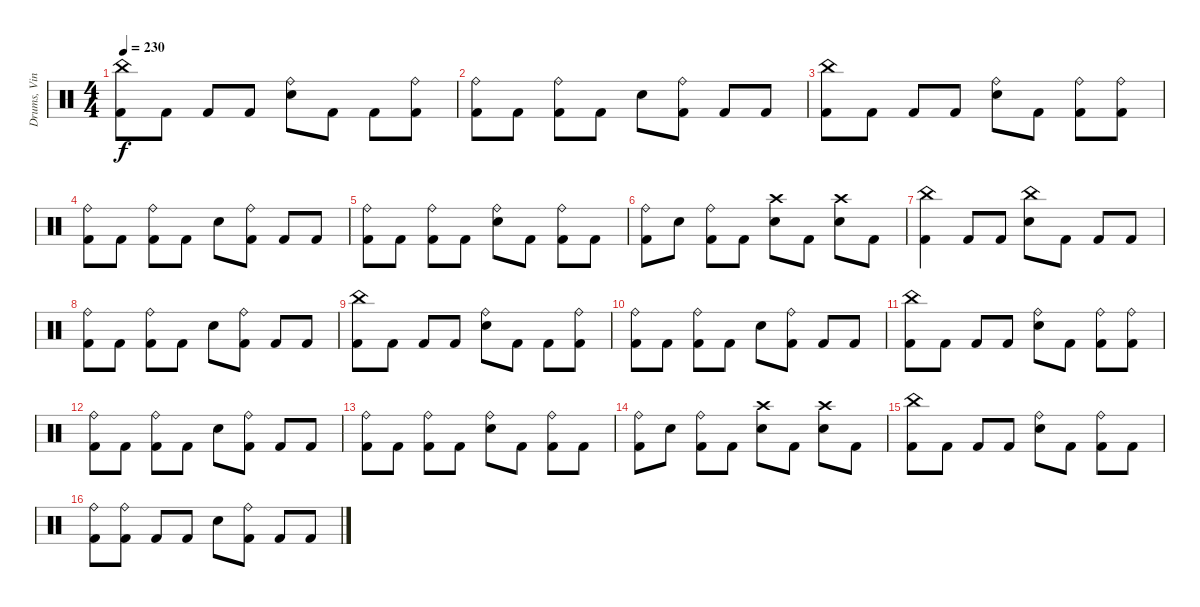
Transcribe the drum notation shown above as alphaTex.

\track ("Drums, Vinnie" "Drums, Vin") {instrument percussion}
\staff {score}
\articulation defaults
\ts (4 4)
\tempo 230
\clef neutral
\ks c
("China (hit)" "Kick (hit) 2").8{dy f} "Kick (hit) 2".8 "Kick (hit) 2".8 "Kick (hit) 2".8 ("Ride (bell)" "Electric Snare (hit)").8 "Kick (hit) 2".8 "Kick (hit) 2".8 ("Ride (bell)" "Kick (hit) 2").8 |
("Ride (bell)" "Kick (hit) 2").8 "Kick (hit) 2".8 ("Ride (bell)" "Kick (hit) 2").8 "Kick (hit) 2".8 "Electric Snare (hit)".8 ("Ride (bell)" "Kick (hit) 2").8 "Kick (hit) 2".8 "Kick (hit) 2".8 |
("China (hit)" "Kick (hit) 2").8 "Kick (hit) 2".8 "Kick (hit) 2".8 "Kick (hit) 2".8 ("Ride (bell)" "Electric Snare (hit)").8 "Kick (hit) 2".8 ("Ride (bell)" "Kick (hit) 2").8 ("Ride (bell)" "Kick (hit) 2").8 |
("Ride (bell)" "Kick (hit) 2").8 "Kick (hit) 2".8 ("Ride (bell)" "Kick (hit) 2").8 "Kick (hit) 2".8 "Electric Snare (hit)".8 ("Ride (bell)" "Kick (hit) 2").8 "Kick (hit) 2".8 "Kick (hit) 2".8 |
("Ride (bell)" "Kick (hit) 2").8 "Kick (hit) 2".8 ("Ride (bell)" "Kick (hit) 2").8 "Kick (hit) 2".8 ("Ride (bell)" "Electric Snare (hit)").8 "Kick (hit) 2".8 ("Ride (bell)" "Kick (hit) 2").8 "Kick (hit) 2".8 |
("Ride (bell)" "Kick (hit) 2").8 "Electric Snare (hit)".8 ("Ride (bell)" "Kick (hit) 2").8 "Kick (hit) 2".8 ("Crash high (hit)" "Electric Snare (hit)").8 "Kick (hit) 2".8 ("Crash high (hit)" "Electric Snare (hit)").8 "Kick (hit) 2".8 |
("China (hit)" "Kick (hit) 2").4 "Kick (hit) 2".8 "Kick (hit) 2".8 ("China (hit)" "Electric Snare (hit)").8 "Kick (hit) 2".8 "Kick (hit) 2".8 "Kick (hit) 2".8 |
("Ride (bell)" "Kick (hit) 2").8 "Kick (hit) 2".8 ("Ride (bell)" "Kick (hit) 2").8 "Kick (hit) 2".8 "Electric Snare (hit)".8 ("Ride (bell)" "Kick (hit) 2").8 "Kick (hit) 2".8 "Kick (hit) 2".8 |
("China (hit)" "Kick (hit) 2").8 "Kick (hit) 2".8 "Kick (hit) 2".8 "Kick (hit) 2".8 ("Ride (bell)" "Electric Snare (hit)").8 "Kick (hit) 2".8 "Kick (hit) 2".8 ("Ride (bell)" "Kick (hit) 2").8 |
("Ride (bell)" "Kick (hit) 2").8 "Kick (hit) 2".8 ("Ride (bell)" "Kick (hit) 2").8 "Kick (hit) 2".8 "Electric Snare (hit)".8 ("Ride (bell)" "Kick (hit) 2").8 "Kick (hit) 2".8 "Kick (hit) 2".8 |
("China (hit)" "Kick (hit) 2").8 "Kick (hit) 2".8 "Kick (hit) 2".8 "Kick (hit) 2".8 ("Ride (bell)" "Electric Snare (hit)").8 "Kick (hit) 2".8 ("Ride (bell)" "Kick (hit) 2").8 ("Ride (bell)" "Kick (hit) 2").8 |
("Ride (bell)" "Kick (hit) 2").8 "Kick (hit) 2".8 ("Ride (bell)" "Kick (hit) 2").8 "Kick (hit) 2".8 "Electric Snare (hit)".8 ("Ride (bell)" "Kick (hit) 2").8 "Kick (hit) 2".8 "Kick (hit) 2".8 |
("Ride (bell)" "Kick (hit) 2").8 "Kick (hit) 2".8 ("Ride (bell)" "Kick (hit) 2").8 "Kick (hit) 2".8 ("Ride (bell)" "Electric Snare (hit)").8 "Kick (hit) 2".8 ("Ride (bell)" "Kick (hit) 2").8 "Kick (hit) 2".8 |
("Ride (bell)" "Kick (hit) 2").8 "Electric Snare (hit)".8 ("Ride (bell)" "Kick (hit) 2").8 "Kick (hit) 2".8 ("Crash high (hit)" "Electric Snare (hit)").8 "Kick (hit) 2".8 ("Crash high (hit)" "Electric Snare (hit)").8 "Kick (hit) 2".8 |
("China (hit)" "Kick (hit) 2").8 "Kick (hit) 2".8 "Kick (hit) 2".8 "Kick (hit) 2".8 ("Ride (bell)" "Electric Snare (hit)").8 "Kick (hit) 2".8 ("Ride (bell)" "Kick (hit) 2").8 "Kick (hit) 2".8 |
("Ride (bell)" "Kick (hit) 2").8 ("Ride (bell)" "Kick (hit) 2").8 "Kick (hit) 2".8 "Kick (hit) 2".8 "Electric Snare (hit)".8 ("Ride (bell)" "Kick (hit) 2").8 "Kick (hit) 2".8 "Kick (hit) 2".8
